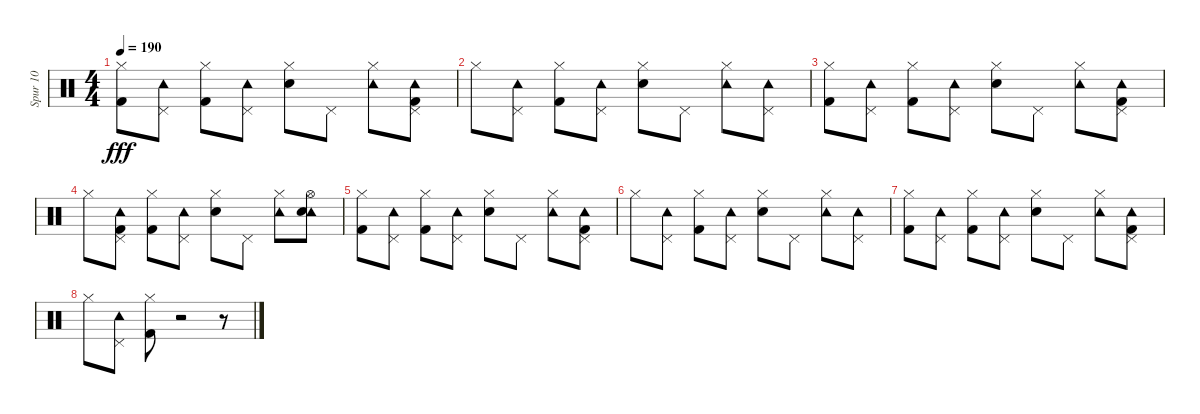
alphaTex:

\track ("Spur 10" "Spur 10") {instrument percussion}
\staff {score}
\articulation defaults
\ts (4 4)
\tempo 190
\clef neutral
\ks c
("Hi-Hat (closed)" "Kick (hit) 2").8{dy fff} ("Tambourine (hit)" "Pedal Hi-Hat (hit)").8 ("Hi-Hat (closed)" "Kick (hit) 2").8 ("Pedal Hi-Hat (hit)" "Tambourine (hit)").8 ("Hi-Hat (closed)" "Electric Snare (hit)").8 "Pedal Hi-Hat (hit)".8 ("Tambourine (hit)" "Hi-Hat (closed)").8 ("Pedal Hi-Hat (hit)" "Kick (hit) 2" "Tambourine (hit)").8 |
"Hi-Hat (closed)".8 ("Tambourine (hit)" "Pedal Hi-Hat (hit)").8 ("Hi-Hat (closed)" "Kick (hit) 2").8 ("Pedal Hi-Hat (hit)" "Tambourine (hit)").8 ("Hi-Hat (closed)" "Electric Snare (hit)").8 "Pedal Hi-Hat (hit)".8 ("Tambourine (hit)" "Hi-Hat (closed)").8 ("Pedal Hi-Hat (hit)" "Tambourine (hit)").8 |
("Hi-Hat (closed)" "Kick (hit) 2").8 ("Tambourine (hit)" "Pedal Hi-Hat (hit)").8 ("Hi-Hat (closed)" "Kick (hit) 2").8 ("Pedal Hi-Hat (hit)" "Tambourine (hit)").8 ("Hi-Hat (closed)" "Electric Snare (hit)").8 "Pedal Hi-Hat (hit)".8 ("Tambourine (hit)" "Hi-Hat (closed)").8 ("Pedal Hi-Hat (hit)" "Kick (hit) 2" "Tambourine (hit)").8 |
"Hi-Hat (closed)".8 ("Tambourine (hit)" "Kick (hit) 2" "Pedal Hi-Hat (hit)").8 ("Kick (hit) 2" "Hi-Hat (closed)").8 ("Tambourine (hit)" "Pedal Hi-Hat (hit)").8 ("Electric Snare (hit)" "Hi-Hat (closed)").8 "Pedal Hi-Hat (hit)".8 ("Tambourine (hit)" "Hi-Hat (closed)").8 ("Tambourine (hit)" "Electric Snare (hit)" "Hi-Hat (open)").8 |
("Hi-Hat (closed)" "Kick (hit) 2").8 ("Tambourine (hit)" "Pedal Hi-Hat (hit)").8 ("Kick (hit) 2" "Hi-Hat (closed)").8 ("Tambourine (hit)" "Pedal Hi-Hat (hit)").8 ("Hi-Hat (closed)" "Electric Snare (hit)").8 "Pedal Hi-Hat (hit)".8 ("Tambourine (hit)" "Hi-Hat (closed)").8 ("Tambourine (hit)" "Pedal Hi-Hat (hit)" "Kick (hit) 2").8 |
"Hi-Hat (closed)".8 ("Tambourine (hit)" "Pedal Hi-Hat (hit)").8 ("Hi-Hat (closed)" "Kick (hit) 2").8 ("Pedal Hi-Hat (hit)" "Tambourine (hit)").8 ("Hi-Hat (closed)" "Electric Snare (hit)").8 "Pedal Hi-Hat (hit)".8 ("Tambourine (hit)" "Hi-Hat (closed)").8 ("Tambourine (hit)" "Pedal Hi-Hat (hit)").8 |
("Hi-Hat (closed)" "Kick (hit) 2").8 ("Tambourine (hit)" "Pedal Hi-Hat (hit)").8 ("Hi-Hat (closed)" "Kick (hit) 2").8 ("Tambourine (hit)" "Pedal Hi-Hat (hit)").8 ("Hi-Hat (closed)" "Electric Snare (hit)").8 "Pedal Hi-Hat (hit)".8 ("Tambourine (hit)" "Hi-Hat (closed)").8 ("Tambourine (hit)" "Pedal Hi-Hat (hit)" "Kick (hit) 2").8 |
"Hi-Hat (closed)".8 ("Tambourine (hit)" "Pedal Hi-Hat (hit)").8 ("Hi-Hat (closed)" "Kick (hit) 2").8 r.2 r.8
